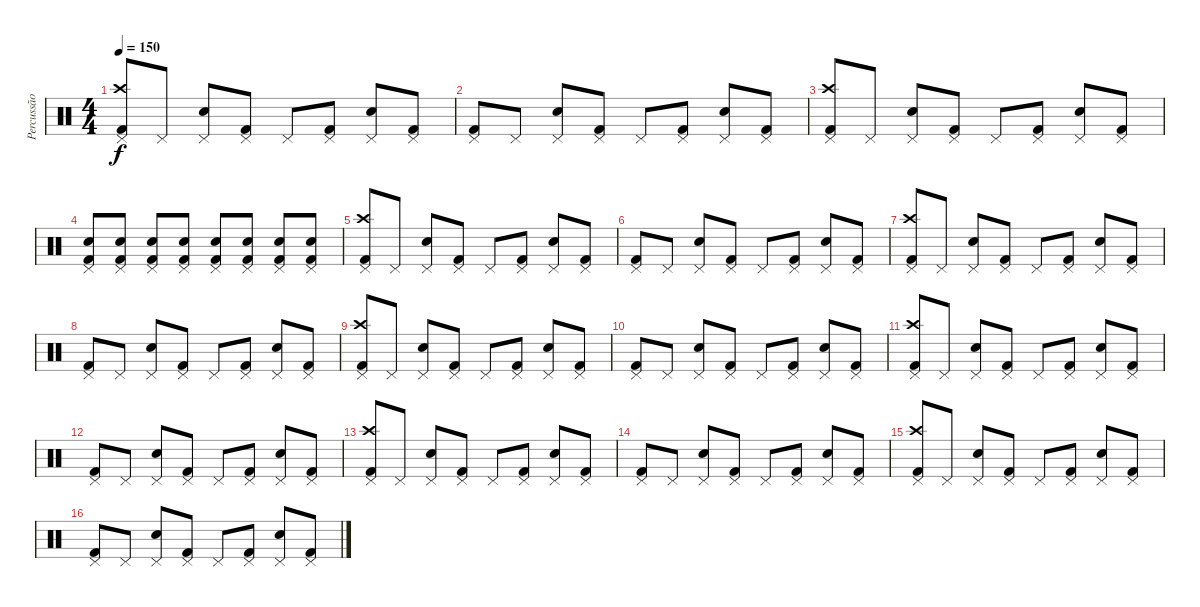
\track ("Percussão" "Percussão") {instrument percussion}
\staff {score}
\articulation defaults
\ts (4 4)
\tempo 150
\clef neutral
\ks c
("Pedal Hi-Hat (hit)" "Crash high (hit)" "Kick (hit) 2").8{dy f} "Pedal Hi-Hat (hit)".8 ("Pedal Hi-Hat (hit)" "Electric Snare (hit)").8 ("Pedal Hi-Hat (hit)" "Kick (hit) 2").8 "Pedal Hi-Hat (hit)".8 ("Pedal Hi-Hat (hit)" "Kick (hit) 2").8 ("Pedal Hi-Hat (hit)" "Electric Snare (hit)").8 ("Pedal Hi-Hat (hit)" "Kick (hit) 2").8 |
("Pedal Hi-Hat (hit)" "Kick (hit) 2").8 "Pedal Hi-Hat (hit)".8 ("Pedal Hi-Hat (hit)" "Electric Snare (hit)").8 ("Pedal Hi-Hat (hit)" "Kick (hit) 2").8 "Pedal Hi-Hat (hit)".8 ("Pedal Hi-Hat (hit)" "Kick (hit) 2").8 ("Pedal Hi-Hat (hit)" "Electric Snare (hit)").8 ("Pedal Hi-Hat (hit)" "Kick (hit) 2").8 |
("Pedal Hi-Hat (hit)" "Crash high (hit)" "Kick (hit) 2").8 "Pedal Hi-Hat (hit)".8 ("Pedal Hi-Hat (hit)" "Electric Snare (hit)").8 ("Pedal Hi-Hat (hit)" "Kick (hit) 2").8 "Pedal Hi-Hat (hit)".8 ("Pedal Hi-Hat (hit)" "Kick (hit) 2").8 ("Pedal Hi-Hat (hit)" "Electric Snare (hit)").8 ("Pedal Hi-Hat (hit)" "Kick (hit) 2").8 |
("Pedal Hi-Hat (hit)" "Electric Snare (hit)" "Kick (hit) 2").8 ("Pedal Hi-Hat (hit)" "Electric Snare (hit)" "Kick (hit) 2").8 ("Pedal Hi-Hat (hit)" "Electric Snare (hit)" "Kick (hit) 2").8 ("Pedal Hi-Hat (hit)" "Electric Snare (hit)" "Kick (hit) 2").8 ("Pedal Hi-Hat (hit)" "Electric Snare (hit)" "Kick (hit) 2").8 ("Pedal Hi-Hat (hit)" "Electric Snare (hit)" "Kick (hit) 2").8 ("Pedal Hi-Hat (hit)" "Electric Snare (hit)" "Kick (hit) 2").8 ("Pedal Hi-Hat (hit)" "Electric Snare (hit)" "Kick (hit) 2").8 |
("Pedal Hi-Hat (hit)" "Crash high (hit)" "Kick (hit) 2").8 "Pedal Hi-Hat (hit)".8 ("Pedal Hi-Hat (hit)" "Electric Snare (hit)").8 ("Pedal Hi-Hat (hit)" "Kick (hit) 2").8 "Pedal Hi-Hat (hit)".8 ("Pedal Hi-Hat (hit)" "Kick (hit) 2").8 ("Pedal Hi-Hat (hit)" "Electric Snare (hit)").8 ("Pedal Hi-Hat (hit)" "Kick (hit) 2").8 |
("Pedal Hi-Hat (hit)" "Kick (hit) 2").8 "Pedal Hi-Hat (hit)".8 ("Pedal Hi-Hat (hit)" "Electric Snare (hit)").8 ("Pedal Hi-Hat (hit)" "Kick (hit) 2").8 "Pedal Hi-Hat (hit)".8 ("Pedal Hi-Hat (hit)" "Kick (hit) 2").8 ("Pedal Hi-Hat (hit)" "Electric Snare (hit)").8 ("Pedal Hi-Hat (hit)" "Kick (hit) 2").8 |
("Pedal Hi-Hat (hit)" "Crash high (hit)" "Kick (hit) 2").8 "Pedal Hi-Hat (hit)".8 ("Pedal Hi-Hat (hit)" "Electric Snare (hit)").8 ("Pedal Hi-Hat (hit)" "Kick (hit) 2").8 "Pedal Hi-Hat (hit)".8 ("Pedal Hi-Hat (hit)" "Kick (hit) 2").8 ("Pedal Hi-Hat (hit)" "Electric Snare (hit)").8 ("Pedal Hi-Hat (hit)" "Kick (hit) 2").8 |
("Pedal Hi-Hat (hit)" "Kick (hit) 2").8 "Pedal Hi-Hat (hit)".8 ("Pedal Hi-Hat (hit)" "Electric Snare (hit)").8 ("Pedal Hi-Hat (hit)" "Kick (hit) 2").8 "Pedal Hi-Hat (hit)".8 ("Pedal Hi-Hat (hit)" "Kick (hit) 2").8 ("Pedal Hi-Hat (hit)" "Electric Snare (hit)").8 ("Pedal Hi-Hat (hit)" "Kick (hit) 2").8 |
("Pedal Hi-Hat (hit)" "Crash high (hit)" "Kick (hit) 2").8 "Pedal Hi-Hat (hit)".8 ("Pedal Hi-Hat (hit)" "Electric Snare (hit)").8 ("Pedal Hi-Hat (hit)" "Kick (hit) 2").8 "Pedal Hi-Hat (hit)".8 ("Pedal Hi-Hat (hit)" "Kick (hit) 2").8 ("Pedal Hi-Hat (hit)" "Electric Snare (hit)").8 ("Pedal Hi-Hat (hit)" "Kick (hit) 2").8 |
("Pedal Hi-Hat (hit)" "Kick (hit) 2").8 "Pedal Hi-Hat (hit)".8 ("Pedal Hi-Hat (hit)" "Electric Snare (hit)").8 ("Pedal Hi-Hat (hit)" "Kick (hit) 2").8 "Pedal Hi-Hat (hit)".8 ("Pedal Hi-Hat (hit)" "Kick (hit) 2").8 ("Pedal Hi-Hat (hit)" "Electric Snare (hit)").8 ("Pedal Hi-Hat (hit)" "Kick (hit) 2").8 |
("Pedal Hi-Hat (hit)" "Crash high (hit)" "Kick (hit) 2").8 "Pedal Hi-Hat (hit)".8 ("Pedal Hi-Hat (hit)" "Electric Snare (hit)").8 ("Pedal Hi-Hat (hit)" "Kick (hit) 2").8 "Pedal Hi-Hat (hit)".8 ("Pedal Hi-Hat (hit)" "Kick (hit) 2").8 ("Pedal Hi-Hat (hit)" "Electric Snare (hit)").8 ("Pedal Hi-Hat (hit)" "Kick (hit) 2").8 |
("Pedal Hi-Hat (hit)" "Kick (hit) 2").8 "Pedal Hi-Hat (hit)".8 ("Pedal Hi-Hat (hit)" "Electric Snare (hit)").8 ("Pedal Hi-Hat (hit)" "Kick (hit) 2").8 "Pedal Hi-Hat (hit)".8 ("Pedal Hi-Hat (hit)" "Kick (hit) 2").8 ("Pedal Hi-Hat (hit)" "Electric Snare (hit)").8 ("Pedal Hi-Hat (hit)" "Kick (hit) 2").8 |
("Pedal Hi-Hat (hit)" "Crash high (hit)" "Kick (hit) 2").8 "Pedal Hi-Hat (hit)".8 ("Pedal Hi-Hat (hit)" "Electric Snare (hit)").8 ("Pedal Hi-Hat (hit)" "Kick (hit) 2").8 "Pedal Hi-Hat (hit)".8 ("Pedal Hi-Hat (hit)" "Kick (hit) 2").8 ("Pedal Hi-Hat (hit)" "Electric Snare (hit)").8 ("Pedal Hi-Hat (hit)" "Kick (hit) 2").8 |
("Pedal Hi-Hat (hit)" "Kick (hit) 2").8 "Pedal Hi-Hat (hit)".8 ("Pedal Hi-Hat (hit)" "Electric Snare (hit)").8 ("Pedal Hi-Hat (hit)" "Kick (hit) 2").8 "Pedal Hi-Hat (hit)".8 ("Pedal Hi-Hat (hit)" "Kick (hit) 2").8 ("Pedal Hi-Hat (hit)" "Electric Snare (hit)").8 ("Pedal Hi-Hat (hit)" "Kick (hit) 2").8 |
("Pedal Hi-Hat (hit)" "Crash high (hit)" "Kick (hit) 2").8 "Pedal Hi-Hat (hit)".8 ("Pedal Hi-Hat (hit)" "Electric Snare (hit)").8 ("Pedal Hi-Hat (hit)" "Kick (hit) 2").8 "Pedal Hi-Hat (hit)".8 ("Pedal Hi-Hat (hit)" "Kick (hit) 2").8 ("Pedal Hi-Hat (hit)" "Electric Snare (hit)").8 ("Pedal Hi-Hat (hit)" "Kick (hit) 2").8 |
("Pedal Hi-Hat (hit)" "Kick (hit) 2").8 "Pedal Hi-Hat (hit)".8 ("Pedal Hi-Hat (hit)" "Electric Snare (hit)").8 ("Pedal Hi-Hat (hit)" "Kick (hit) 2").8 "Pedal Hi-Hat (hit)".8 ("Pedal Hi-Hat (hit)" "Kick (hit) 2").8 ("Pedal Hi-Hat (hit)" "Electric Snare (hit)").8 ("Pedal Hi-Hat (hit)" "Kick (hit) 2").8
